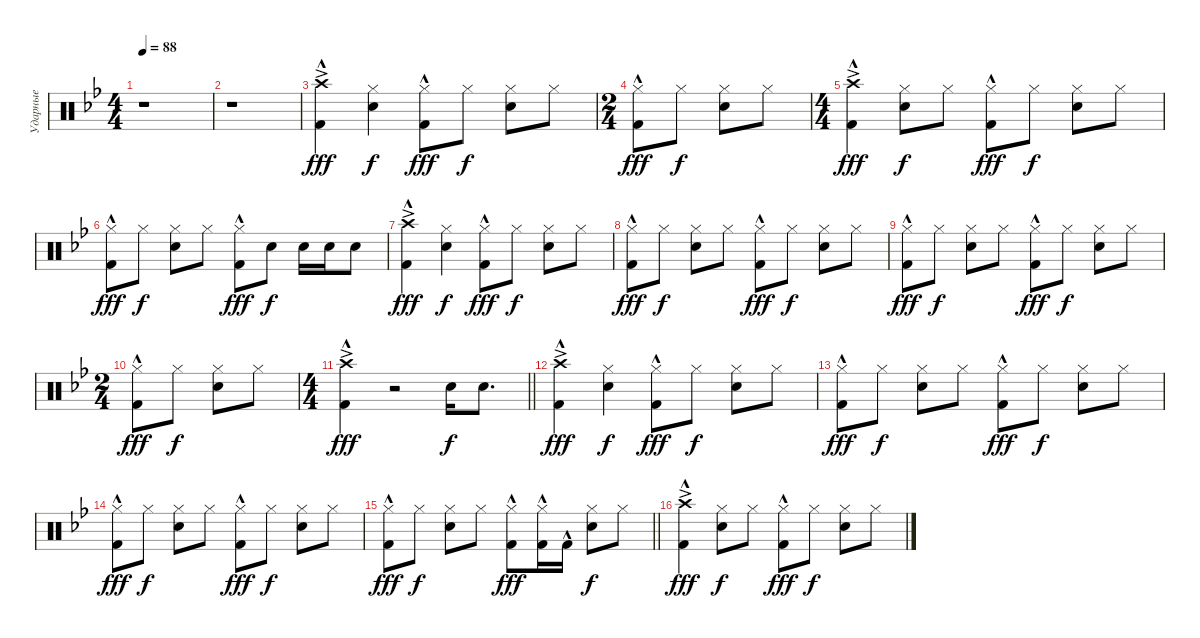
\track ("Ударные" "Ударные") {instrument percussion}
\staff
\articulation defaults
\ts (4 4)
\tempo 88
\clef neutral
\ks bb
r.1{dy fff} |
r.1 |
("Crash high (hit)"{ac} "Kick (hit) 2"{hac}).4 ("Hi-Hat (closed)" "Snare (hit) 2").4{dy f} ("Hi-Hat (closed)" "Kick (hit) 2"{hac}).8{dy fff} "Hi-Hat (closed)".8{dy f} ("Hi-Hat (closed)" "Snare (hit) 2").8 "Hi-Hat (closed)".8 |
\ts (2 4)
("Hi-Hat (closed)" "Kick (hit) 2"{hac}).8{dy fff} "Hi-Hat (closed)".8{dy f} ("Hi-Hat (closed)" "Snare (hit) 2").8 "Hi-Hat (closed)".8 |
\ts (4 4)
("Crash high (hit)"{ac} "Kick (hit) 2"{hac}).4{dy fff} ("Hi-Hat (closed)" "Snare (hit) 2").8{dy f} "Hi-Hat (closed)".8 ("Hi-Hat (closed)" "Kick (hit) 2"{hac}).8{dy fff} "Hi-Hat (closed)".8{dy f} ("Hi-Hat (closed)" "Snare (hit) 2").8 "Hi-Hat (closed)".8 |
("Hi-Hat (closed)" "Kick (hit) 2"{hac}).8{dy fff} "Hi-Hat (closed)".8{dy f} ("Hi-Hat (closed)" "Snare (hit) 2").8 "Hi-Hat (closed)".8 ("Hi-Hat (closed)" "Kick (hit) 2"{hac}).8{dy fff} "Snare (hit) 2".8{dy f} "Snare (hit) 2".16 "Snare (hit) 2".16 "Snare (hit) 2".8 |
("Crash high (hit)"{ac} "Kick (hit) 2"{hac}).4{dy fff} ("Hi-Hat (closed)" "Snare (hit) 2").4{dy f} ("Hi-Hat (closed)" "Kick (hit) 2"{hac}).8{dy fff} "Hi-Hat (closed)".8{dy f} ("Hi-Hat (closed)" "Snare (hit) 2").8 "Hi-Hat (closed)".8 |
("Hi-Hat (closed)" "Kick (hit) 2"{hac}).8{dy fff} "Hi-Hat (closed)".8{dy f} ("Hi-Hat (closed)" "Snare (hit) 2").8 "Hi-Hat (closed)".8 ("Hi-Hat (closed)" "Kick (hit) 2"{hac}).8{dy fff} "Hi-Hat (closed)".8{dy f} ("Hi-Hat (closed)" "Snare (hit) 2").8 "Hi-Hat (closed)".8 |
("Hi-Hat (closed)" "Kick (hit) 2"{hac}).8{dy fff} "Hi-Hat (closed)".8{dy f} ("Hi-Hat (closed)" "Snare (hit) 2").8 "Hi-Hat (closed)".8 ("Hi-Hat (closed)" "Kick (hit) 2"{hac}).8{dy fff} "Hi-Hat (closed)".8{dy f} ("Hi-Hat (closed)" "Snare (hit) 2").8 "Hi-Hat (closed)".8 |
\ts (2 4)
("Hi-Hat (closed)" "Kick (hit) 2"{hac}).8{dy fff} "Hi-Hat (closed)".8{dy f} ("Hi-Hat (closed)" "Snare (hit) 2").8 "Hi-Hat (closed)".8 |
\ts (4 4)
\barLineRight lightlight
("Crash high (hit)"{ac} "Kick (hit) 2"{hac}).4{dy fff} r.2 "Snare (hit) 2".16{dy f} "Snare (hit) 2".8{d} |
("Crash high (hit)"{ac} "Kick (hit) 2"{hac}).4{dy fff} ("Hi-Hat (closed)" "Snare (hit) 2").4{dy f} ("Hi-Hat (closed)" "Kick (hit) 2"{hac}).8{dy fff} "Hi-Hat (closed)".8{dy f} ("Hi-Hat (closed)" "Snare (hit) 2").8 "Hi-Hat (closed)".8 |
("Hi-Hat (closed)" "Kick (hit) 2"{hac}).8{dy fff} "Hi-Hat (closed)".8{dy f} ("Hi-Hat (closed)" "Snare (hit) 2").8 "Hi-Hat (closed)".8 ("Hi-Hat (closed)" "Kick (hit) 2"{hac}).8{dy fff} "Hi-Hat (closed)".8{dy f} ("Hi-Hat (closed)" "Snare (hit) 2").8 "Hi-Hat (closed)".8 |
("Hi-Hat (closed)" "Kick (hit) 2"{hac}).8{dy fff} "Hi-Hat (closed)".8{dy f} ("Hi-Hat (closed)" "Snare (hit) 2").8 "Hi-Hat (closed)".8 ("Hi-Hat (closed)" "Kick (hit) 2"{hac}).8{dy fff} "Hi-Hat (closed)".8{dy f} ("Hi-Hat (closed)" "Snare (hit) 2").8 "Hi-Hat (closed)".8 |
\barLineRight lightlight
("Hi-Hat (closed)" "Kick (hit) 2"{hac}).8{dy fff} "Hi-Hat (closed)".8{dy f} ("Hi-Hat (closed)" "Snare (hit) 2").8 "Hi-Hat (closed)".8 ("Hi-Hat (closed)" "Kick (hit) 2"{hac}).8{dy fff} ("Hi-Hat (closed)" "Kick (hit) 2"{hac}).16 "Kick (hit) 2"{hac}.16 ("Hi-Hat (closed)" "Snare (hit) 2").8{dy f} "Hi-Hat (closed)".8 |
("Crash high (hit)"{ac} "Kick (hit) 2"{hac}).4{dy fff} ("Hi-Hat (closed)" "Snare (hit) 2").8{dy f} "Hi-Hat (closed)".8 ("Hi-Hat (closed)" "Kick (hit) 2"{hac}).8{dy fff} "Hi-Hat (closed)".8{dy f} ("Hi-Hat (closed)" "Snare (hit) 2").8 "Hi-Hat (closed)".8
